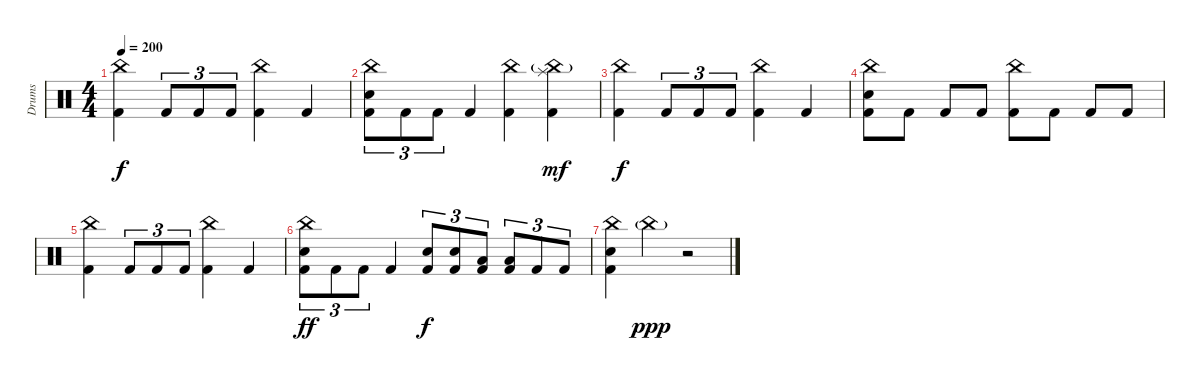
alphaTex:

\track ("Drums" "Drums") {instrument percussion}
\staff {score}
\articulation defaults
\ts (4 4)
\tempo 200
\clef neutral
\ks c
("China (hit)" "Kick (hit) 2").4{dy f} "Kick (hit) 2".8{tu (3 2)} "Kick (hit) 2".8{tu (3 2)} "Kick (hit) 2".8{tu (3 2)} ("China (hit)" "Kick (hit) 2").4 "Kick (hit) 2".4 |
("China (hit)" "Kick (hit) 2" "Electric Snare (hit)").8{tu (3 2)} "Kick (hit) 2".8{tu (3 2)} "Kick (hit) 2".8{tu (3 2)} "Kick (hit) 2".4 ("China (hit)" "Kick (hit) 2").4 ("Splash (hit)" "China (hit)"{g} "Kick (hit) 2").4{dy mf} |
("China (hit)" "Kick (hit) 2").4{dy f} "Kick (hit) 2".8{tu (3 2)} "Kick (hit) 2".8{tu (3 2)} "Kick (hit) 2".8{tu (3 2)} ("China (hit)" "Kick (hit) 2").4 "Kick (hit) 2".4 |
("China (hit)" "Kick (hit) 2" "Electric Snare (hit)").8 "Kick (hit) 2".8 "Kick (hit) 2".8 "Kick (hit) 2".8 ("China (hit)" "Kick (hit) 2").8 "Kick (hit) 2".8 "Kick (hit) 2".8 "Kick (hit) 2".8 |
("China (hit)" "Kick (hit) 2").4 "Kick (hit) 2".8{tu (3 2)} "Kick (hit) 2".8{tu (3 2)} "Kick (hit) 2".8{tu (3 2)} ("China (hit)" "Kick (hit) 2").4 "Kick (hit) 2".4 |
("China (hit)" "Kick (hit) 2" "Electric Snare (hit)").8{tu (3 2) dy ff} "Kick (hit) 2".8{tu (3 2)} "Kick (hit) 2".8{tu (3 2)} "Kick (hit) 2".4 ("Kick (hit) 2" "Electric Snare (hit)").8{tu (3 2) dy f} ("Kick (hit) 2" "Electric Snare (hit)").8{tu (3 2)} ("Low Tom (hit)" "Kick (hit) 2").8{tu (3 2)} ("Low Tom (hit)" "Kick (hit) 2").8{tu (3 2)} "Kick (hit) 2".8{tu (3 2)} "Kick (hit) 2".8{tu (3 2)} |
("China (hit)" "Kick (hit) 2" "Electric Snare (hit)").4 "China (hit)"{g}.4{dy ppp} r.2
